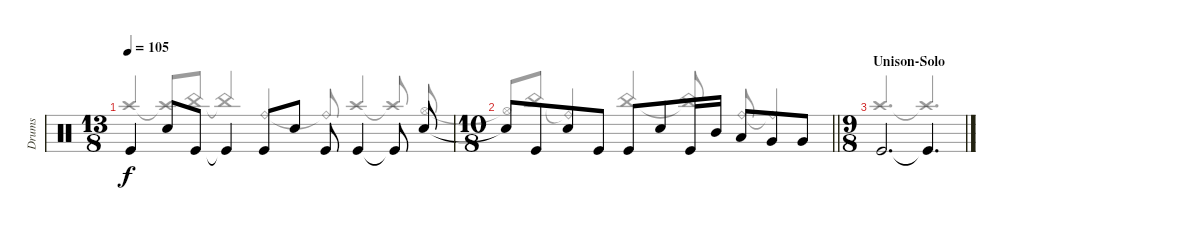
\track ("Drums" "Drums") {instrument percussion}
\staff {score}
\articulation defaults
\voice
\ts (13 8)
\tempo 105
\clef neutral
\ks aminor "Kick (hit)".4{dy f} "Snare (hit) 2".8 "Kick (hit)".8 "Kick (hit)"{t}.4 "Kick (hit)".8 "Snare (hit) 2".8 "Kick (hit)".8 "Kick (hit)".4 "Kick (hit)"{t}.8 "Snare (hit) 2".8
|
\ts (10 8)
\barLineRight lightlight "Snare (hit) 2"{t}.8 "Kick (hit)".8 "Snare (hit) 2".8 "Kick (hit)".8 "Kick (hit)".8 "Snare (hit) 2".8 "Kick (hit)".16 "Mid Tom (hit)".16 "Low Tom (hit)".8 "Very Low Tom (hit)".8 "Very Low Tom (hit)".8
|
\ts (9 8)
\section ("" "Unison-Solo")
"Kick (hit)".2{d} "Kick (hit)"{t}.4{d} |
|
|
|
|
|
|
|
|
|
|
|
|
\voice
\clef neutral
\ottava regular
\simile none
\ks aminor "Crash high (hit)".4{dy f beam Up} "Crash high (hit)"{t}.8{beam Up} "China (hit)".8{beam Up} "China (hit)"{t}.4{beam Up} "Ride (bell)".4{beam Up} "Ride (bell)"{t}.8{beam Up} "Crash high (hit)".4{beam Up} "Crash high (hit)"{t}.8{beam Up} "Hi-Hat (open)".8{beam Up}
|
\barLineRight lightlight "Hi-Hat (open)"{t}.8{beam Up} "China (hit)".8{beam Up} "Ride (bell)"{t}.4{beam Up} "China (hit)".4{beam Up} "China (hit)"{t}.8{beam Up} "Ride (bell)".8{beam Up} "Ride (bell)"{t}.4{beam Up}
|
"Crash high (hit)".2{d beam Up} "Crash high (hit)"{t}.4{d beam Up} |
|
|
|
|
|
|
|
|
|
|
|
|
